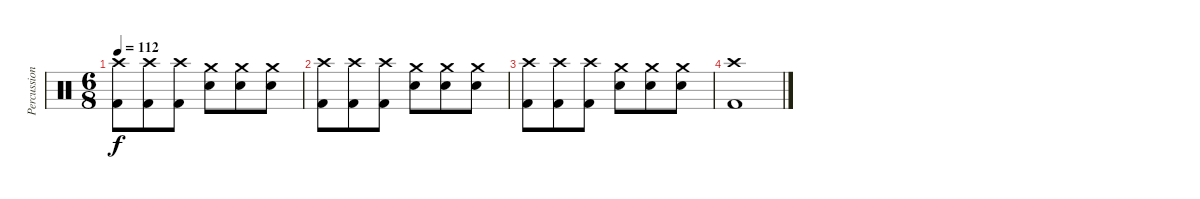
\track ("Percussion" "Percussion") {instrument percussion}
\staff {score}
\articulation defaults
\ts (6 8)
\tempo 112
\clef neutral
\ks c
("Crash high (hit)" "Kick (hit) 2").8{dy f} ("Crash high (hit)" "Kick (hit) 2").8 ("Crash high (hit)" "Kick (hit) 2").8 ("Crash medium (hit)" "Electric Snare (hit)").8 ("Crash medium (hit)" "Electric Snare (hit)").8 ("Crash medium (hit)" "Electric Snare (hit)").8 |
("Crash high (hit)" "Kick (hit) 2").8 ("Crash high (hit)" "Kick (hit) 2").8 ("Crash high (hit)" "Kick (hit) 2").8 ("Crash medium (hit)" "Electric Snare (hit)").8 ("Crash medium (hit)" "Electric Snare (hit)").8 ("Crash medium (hit)" "Electric Snare (hit)").8 |
("Crash high (hit)" "Kick (hit) 2").8 ("Crash high (hit)" "Kick (hit) 2").8 ("Crash high (hit)" "Kick (hit) 2").8 ("Crash medium (hit)" "Electric Snare (hit)").8 ("Crash medium (hit)" "Electric Snare (hit)").8 ("Crash medium (hit)" "Electric Snare (hit)").8 |
("Crash high (hit)" "Kick (hit) 2").1
